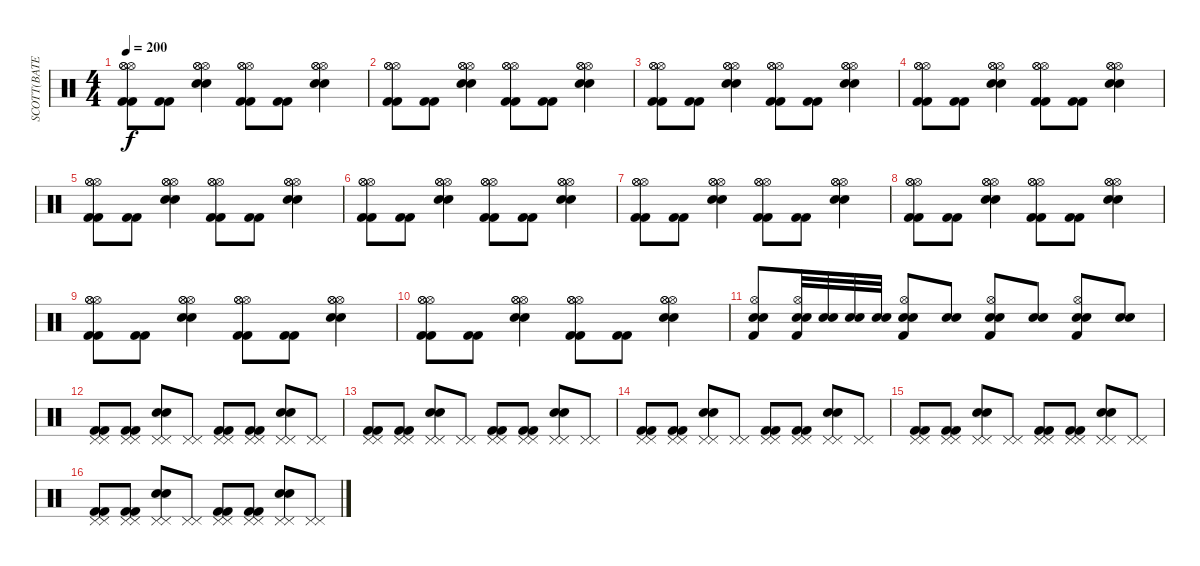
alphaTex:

\track ("SCOTT(BATERIA)" "SCOTT(BATE") {instrument percussion}
\staff {score}
\articulation defaults
\ts (4 4)
\tempo 200
\clef neutral
\ks c
("Kick (hit) 2" "Kick (hit) 2" "Hi-Hat (open)" "Hi-Hat (open)" "Hi-Hat (open)").8{dy f} ("Kick (hit) 2" "Kick (hit) 2").8 ("Snare (hit) 2" "Snare (hit) 2" "Hi-Hat (open)" "Hi-Hat (open)" "Hi-Hat (open)").4 ("Kick (hit) 2" "Kick (hit) 2" "Hi-Hat (open)" "Hi-Hat (open)" "Hi-Hat (open)").8 ("Kick (hit) 2" "Kick (hit) 2").8 ("Snare (hit) 2" "Snare (hit) 2" "Hi-Hat (open)" "Hi-Hat (open)" "Hi-Hat (open)").4 |
("Kick (hit) 2" "Kick (hit) 2" "Hi-Hat (open)" "Hi-Hat (open)" "Hi-Hat (open)").8 ("Kick (hit) 2" "Kick (hit) 2").8 ("Snare (hit) 2" "Snare (hit) 2" "Hi-Hat (open)" "Hi-Hat (open)" "Hi-Hat (open)").4 ("Kick (hit) 2" "Kick (hit) 2" "Hi-Hat (open)" "Hi-Hat (open)" "Hi-Hat (open)").8 ("Kick (hit) 2" "Kick (hit) 2").8 ("Snare (hit) 2" "Snare (hit) 2" "Hi-Hat (open)" "Hi-Hat (open)" "Hi-Hat (open)").4 |
("Kick (hit) 2" "Kick (hit) 2" "Hi-Hat (open)" "Hi-Hat (open)" "Hi-Hat (open)").8 ("Kick (hit) 2" "Kick (hit) 2").8 ("Snare (hit) 2" "Snare (hit) 2" "Hi-Hat (open)" "Hi-Hat (open)" "Hi-Hat (open)").4 ("Kick (hit) 2" "Kick (hit) 2" "Hi-Hat (open)" "Hi-Hat (open)" "Hi-Hat (open)").8 ("Kick (hit) 2" "Kick (hit) 2").8 ("Snare (hit) 2" "Snare (hit) 2" "Hi-Hat (open)" "Hi-Hat (open)" "Hi-Hat (open)").4 |
("Kick (hit) 2" "Kick (hit) 2" "Hi-Hat (open)" "Hi-Hat (open)" "Hi-Hat (open)").8 ("Kick (hit) 2" "Kick (hit) 2").8 ("Snare (hit) 2" "Snare (hit) 2" "Hi-Hat (open)" "Hi-Hat (open)" "Hi-Hat (open)").4 ("Kick (hit) 2" "Kick (hit) 2" "Hi-Hat (open)" "Hi-Hat (open)" "Hi-Hat (open)").8 ("Kick (hit) 2" "Kick (hit) 2").8 ("Snare (hit) 2" "Snare (hit) 2" "Hi-Hat (open)" "Hi-Hat (open)" "Hi-Hat (open)").4 |
("Kick (hit) 2" "Kick (hit) 2" "Hi-Hat (open)" "Hi-Hat (open)" "Hi-Hat (open)").8 ("Kick (hit) 2" "Kick (hit) 2").8 ("Snare (hit) 2" "Snare (hit) 2" "Hi-Hat (open)" "Hi-Hat (open)" "Hi-Hat (open)").4 ("Kick (hit) 2" "Kick (hit) 2" "Hi-Hat (open)" "Hi-Hat (open)" "Hi-Hat (open)").8 ("Kick (hit) 2" "Kick (hit) 2").8 ("Snare (hit) 2" "Snare (hit) 2" "Hi-Hat (open)" "Hi-Hat (open)" "Hi-Hat (open)").4 |
("Kick (hit) 2" "Kick (hit) 2" "Hi-Hat (open)" "Hi-Hat (open)" "Hi-Hat (open)").8 ("Kick (hit) 2" "Kick (hit) 2").8 ("Snare (hit) 2" "Snare (hit) 2" "Hi-Hat (open)" "Hi-Hat (open)" "Hi-Hat (open)").4 ("Kick (hit) 2" "Kick (hit) 2" "Hi-Hat (open)" "Hi-Hat (open)" "Hi-Hat (open)").8 ("Kick (hit) 2" "Kick (hit) 2").8 ("Snare (hit) 2" "Snare (hit) 2" "Hi-Hat (open)" "Hi-Hat (open)" "Hi-Hat (open)").4 |
("Kick (hit) 2" "Kick (hit) 2" "Hi-Hat (open)" "Hi-Hat (open)" "Hi-Hat (open)").8 ("Kick (hit) 2" "Kick (hit) 2").8 ("Snare (hit) 2" "Snare (hit) 2" "Hi-Hat (open)" "Hi-Hat (open)" "Hi-Hat (open)").4 ("Kick (hit) 2" "Kick (hit) 2" "Hi-Hat (open)" "Hi-Hat (open)" "Hi-Hat (open)").8 ("Kick (hit) 2" "Kick (hit) 2").8 ("Snare (hit) 2" "Snare (hit) 2" "Hi-Hat (open)" "Hi-Hat (open)" "Hi-Hat (open)").4 |
("Kick (hit) 2" "Kick (hit) 2" "Hi-Hat (open)" "Hi-Hat (open)" "Hi-Hat (open)").8 ("Kick (hit) 2" "Kick (hit) 2").8 ("Snare (hit) 2" "Snare (hit) 2" "Hi-Hat (open)" "Hi-Hat (open)" "Hi-Hat (open)").4 ("Kick (hit) 2" "Kick (hit) 2" "Hi-Hat (open)" "Hi-Hat (open)" "Hi-Hat (open)").8 ("Kick (hit) 2" "Kick (hit) 2").8 ("Snare (hit) 2" "Snare (hit) 2" "Hi-Hat (open)" "Hi-Hat (open)" "Hi-Hat (open)").4 |
("Kick (hit) 2" "Kick (hit) 2" "Hi-Hat (open)" "Hi-Hat (open)" "Hi-Hat (open)").8 ("Kick (hit) 2" "Kick (hit) 2").8 ("Snare (hit) 2" "Snare (hit) 2" "Hi-Hat (open)" "Hi-Hat (open)" "Hi-Hat (open)").4 ("Kick (hit) 2" "Kick (hit) 2" "Hi-Hat (open)" "Hi-Hat (open)" "Hi-Hat (open)").8 ("Kick (hit) 2" "Kick (hit) 2").8 ("Snare (hit) 2" "Snare (hit) 2" "Hi-Hat (open)" "Hi-Hat (open)" "Hi-Hat (open)").4 |
("Kick (hit) 2" "Kick (hit) 2" "Hi-Hat (open)" "Hi-Hat (open)" "Hi-Hat (open)").8 ("Kick (hit) 2" "Kick (hit) 2").8 ("Snare (hit) 2" "Snare (hit) 2" "Hi-Hat (open)" "Hi-Hat (open)" "Hi-Hat (open)").4 ("Kick (hit) 2" "Kick (hit) 2" "Hi-Hat (open)" "Hi-Hat (open)" "Hi-Hat (open)").8 ("Kick (hit) 2" "Kick (hit) 2").8 ("Snare (hit) 2" "Snare (hit) 2" "Hi-Hat (open)" "Hi-Hat (open)" "Hi-Hat (open)").4 |
("Snare (hit) 2" "Snare (hit) 2" "Kick (hit) 2" "Hi-Hat (open)").8 ("Snare (hit) 2" "Snare (hit) 2" "Kick (hit) 2" "Hi-Hat (open)").32 ("Snare (hit) 2" "Snare (hit) 2").32 ("Snare (hit) 2" "Snare (hit) 2").32 ("Snare (hit) 2" "Snare (hit) 2").32 ("Snare (hit) 2" "Snare (hit) 2" "Kick (hit) 2" "Hi-Hat (open)").8 ("Snare (hit) 2" "Snare (hit) 2").8 ("Snare (hit) 2" "Snare (hit) 2" "Kick (hit) 2" "Hi-Hat (open)").8 ("Snare (hit) 2" "Snare (hit) 2").8 ("Snare (hit) 2" "Snare (hit) 2" "Kick (hit) 2" "Hi-Hat (open)").8 ("Snare (hit) 2" "Snare (hit) 2").8 |
("Kick (hit) 2" "Kick (hit) 2" "Pedal Hi-Hat (hit)" "Pedal Hi-Hat (hit)").8 ("Kick (hit) 2" "Kick (hit) 2" "Pedal Hi-Hat (hit)" "Pedal Hi-Hat (hit)").8 ("Snare (hit) 2" "Snare (hit) 2" "Pedal Hi-Hat (hit)" "Pedal Hi-Hat (hit)").8 ("Pedal Hi-Hat (hit)" "Pedal Hi-Hat (hit)").8 ("Kick (hit) 2" "Kick (hit) 2" "Pedal Hi-Hat (hit)" "Pedal Hi-Hat (hit)").8 ("Kick (hit) 2" "Kick (hit) 2" "Pedal Hi-Hat (hit)" "Pedal Hi-Hat (hit)").8 ("Snare (hit) 2" "Snare (hit) 2" "Pedal Hi-Hat (hit)" "Pedal Hi-Hat (hit)").8 ("Pedal Hi-Hat (hit)" "Pedal Hi-Hat (hit)").8 |
("Kick (hit) 2" "Kick (hit) 2" "Pedal Hi-Hat (hit)" "Pedal Hi-Hat (hit)").8 ("Kick (hit) 2" "Kick (hit) 2" "Pedal Hi-Hat (hit)" "Pedal Hi-Hat (hit)").8 ("Snare (hit) 2" "Snare (hit) 2" "Pedal Hi-Hat (hit)" "Pedal Hi-Hat (hit)").8 ("Pedal Hi-Hat (hit)" "Pedal Hi-Hat (hit)").8 ("Kick (hit) 2" "Kick (hit) 2" "Pedal Hi-Hat (hit)" "Pedal Hi-Hat (hit)").8 ("Kick (hit) 2" "Kick (hit) 2" "Pedal Hi-Hat (hit)" "Pedal Hi-Hat (hit)").8 ("Snare (hit) 2" "Snare (hit) 2" "Pedal Hi-Hat (hit)" "Pedal Hi-Hat (hit)").8 ("Pedal Hi-Hat (hit)" "Pedal Hi-Hat (hit)").8 |
("Kick (hit) 2" "Kick (hit) 2" "Pedal Hi-Hat (hit)" "Pedal Hi-Hat (hit)").8 ("Kick (hit) 2" "Kick (hit) 2" "Pedal Hi-Hat (hit)" "Pedal Hi-Hat (hit)").8 ("Snare (hit) 2" "Snare (hit) 2" "Pedal Hi-Hat (hit)" "Pedal Hi-Hat (hit)").8 ("Pedal Hi-Hat (hit)" "Pedal Hi-Hat (hit)").8 ("Kick (hit) 2" "Kick (hit) 2" "Pedal Hi-Hat (hit)" "Pedal Hi-Hat (hit)").8 ("Kick (hit) 2" "Kick (hit) 2" "Pedal Hi-Hat (hit)" "Pedal Hi-Hat (hit)").8 ("Snare (hit) 2" "Snare (hit) 2" "Pedal Hi-Hat (hit)" "Pedal Hi-Hat (hit)").8 ("Pedal Hi-Hat (hit)" "Pedal Hi-Hat (hit)").8 |
("Kick (hit) 2" "Kick (hit) 2" "Pedal Hi-Hat (hit)" "Pedal Hi-Hat (hit)").8 ("Kick (hit) 2" "Kick (hit) 2" "Pedal Hi-Hat (hit)" "Pedal Hi-Hat (hit)").8 ("Snare (hit) 2" "Snare (hit) 2" "Pedal Hi-Hat (hit)" "Pedal Hi-Hat (hit)").8 ("Pedal Hi-Hat (hit)" "Pedal Hi-Hat (hit)").8 ("Kick (hit) 2" "Kick (hit) 2" "Pedal Hi-Hat (hit)" "Pedal Hi-Hat (hit)").8 ("Kick (hit) 2" "Kick (hit) 2" "Pedal Hi-Hat (hit)" "Pedal Hi-Hat (hit)").8 ("Snare (hit) 2" "Snare (hit) 2" "Pedal Hi-Hat (hit)" "Pedal Hi-Hat (hit)").8 ("Pedal Hi-Hat (hit)" "Pedal Hi-Hat (hit)").8 |
("Kick (hit) 2" "Kick (hit) 2" "Pedal Hi-Hat (hit)" "Pedal Hi-Hat (hit)").8 ("Kick (hit) 2" "Kick (hit) 2" "Pedal Hi-Hat (hit)" "Pedal Hi-Hat (hit)").8 ("Snare (hit) 2" "Snare (hit) 2" "Pedal Hi-Hat (hit)" "Pedal Hi-Hat (hit)").8 ("Pedal Hi-Hat (hit)" "Pedal Hi-Hat (hit)").8 ("Kick (hit) 2" "Kick (hit) 2" "Pedal Hi-Hat (hit)" "Pedal Hi-Hat (hit)").8 ("Kick (hit) 2" "Kick (hit) 2" "Pedal Hi-Hat (hit)" "Pedal Hi-Hat (hit)").8 ("Snare (hit) 2" "Snare (hit) 2" "Pedal Hi-Hat (hit)" "Pedal Hi-Hat (hit)").8 ("Pedal Hi-Hat (hit)" "Pedal Hi-Hat (hit)").8
